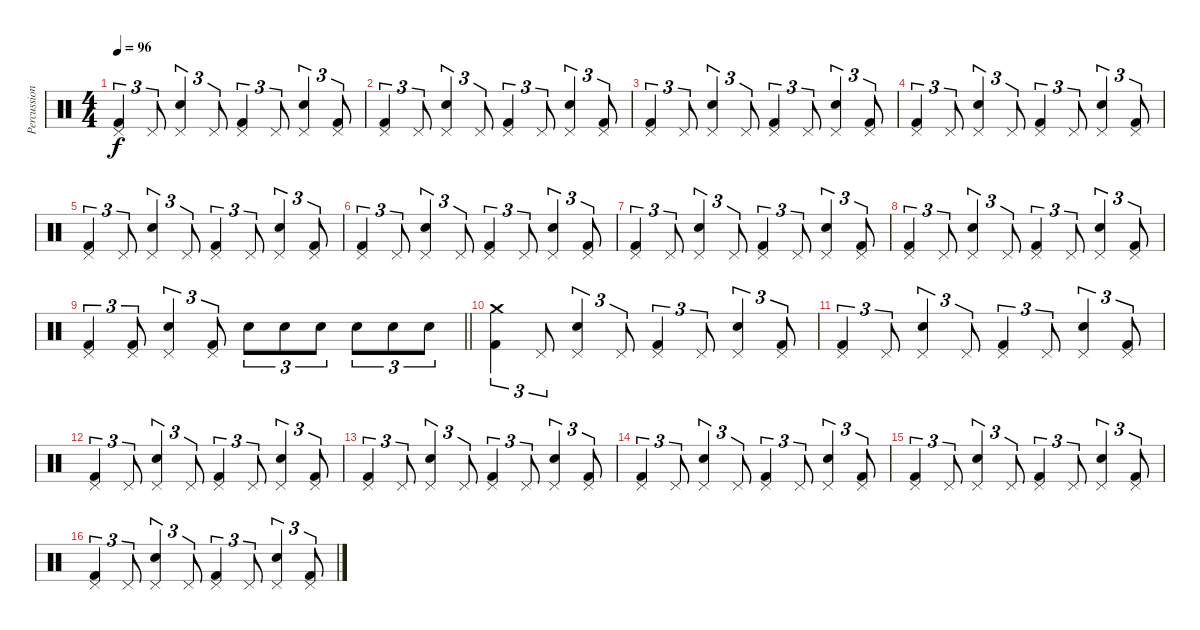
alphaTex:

\track ("Percussioni" "Percussion") {instrument percussion}
\staff {score}
\articulation defaults
\ts (4 4)
\tempo 96
\clef neutral
\ks c
("Kick (hit) 2" "Pedal Hi-Hat (hit)").4{tu (3 2) dy f} "Pedal Hi-Hat (hit)".8{tu (3 2)} ("Electric Snare (hit)" "Pedal Hi-Hat (hit)").4{tu (3 2)} "Pedal Hi-Hat (hit)".8{tu (3 2)} ("Kick (hit) 2" "Pedal Hi-Hat (hit)").4{tu (3 2)} "Pedal Hi-Hat (hit)".8{tu (3 2)} ("Electric Snare (hit)" "Pedal Hi-Hat (hit)").4{tu (3 2)} ("Kick (hit) 2" "Pedal Hi-Hat (hit)").8{tu (3 2)} |
("Kick (hit) 2" "Pedal Hi-Hat (hit)").4{tu (3 2)} "Pedal Hi-Hat (hit)".8{tu (3 2)} ("Electric Snare (hit)" "Pedal Hi-Hat (hit)").4{tu (3 2)} "Pedal Hi-Hat (hit)".8{tu (3 2)} ("Kick (hit) 2" "Pedal Hi-Hat (hit)").4{tu (3 2)} "Pedal Hi-Hat (hit)".8{tu (3 2)} ("Electric Snare (hit)" "Pedal Hi-Hat (hit)").4{tu (3 2)} ("Kick (hit) 2" "Pedal Hi-Hat (hit)").8{tu (3 2)} |
("Kick (hit) 2" "Pedal Hi-Hat (hit)").4{tu (3 2)} "Pedal Hi-Hat (hit)".8{tu (3 2)} ("Electric Snare (hit)" "Pedal Hi-Hat (hit)").4{tu (3 2)} "Pedal Hi-Hat (hit)".8{tu (3 2)} ("Kick (hit) 2" "Pedal Hi-Hat (hit)").4{tu (3 2)} "Pedal Hi-Hat (hit)".8{tu (3 2)} ("Electric Snare (hit)" "Pedal Hi-Hat (hit)").4{tu (3 2)} ("Kick (hit) 2" "Pedal Hi-Hat (hit)").8{tu (3 2)} |
("Kick (hit) 2" "Pedal Hi-Hat (hit)").4{tu (3 2)} "Pedal Hi-Hat (hit)".8{tu (3 2)} ("Electric Snare (hit)" "Pedal Hi-Hat (hit)").4{tu (3 2)} "Pedal Hi-Hat (hit)".8{tu (3 2)} ("Kick (hit) 2" "Pedal Hi-Hat (hit)").4{tu (3 2)} "Pedal Hi-Hat (hit)".8{tu (3 2)} ("Electric Snare (hit)" "Pedal Hi-Hat (hit)").4{tu (3 2)} ("Kick (hit) 2" "Pedal Hi-Hat (hit)").8{tu (3 2)} |
("Kick (hit) 2" "Pedal Hi-Hat (hit)").4{tu (3 2)} "Pedal Hi-Hat (hit)".8{tu (3 2)} ("Electric Snare (hit)" "Pedal Hi-Hat (hit)").4{tu (3 2)} "Pedal Hi-Hat (hit)".8{tu (3 2)} ("Kick (hit) 2" "Pedal Hi-Hat (hit)").4{tu (3 2)} "Pedal Hi-Hat (hit)".8{tu (3 2)} ("Electric Snare (hit)" "Pedal Hi-Hat (hit)").4{tu (3 2)} ("Kick (hit) 2" "Pedal Hi-Hat (hit)").8{tu (3 2)} |
("Kick (hit) 2" "Pedal Hi-Hat (hit)").4{tu (3 2)} "Pedal Hi-Hat (hit)".8{tu (3 2)} ("Electric Snare (hit)" "Pedal Hi-Hat (hit)").4{tu (3 2)} "Pedal Hi-Hat (hit)".8{tu (3 2)} ("Kick (hit) 2" "Pedal Hi-Hat (hit)").4{tu (3 2)} "Pedal Hi-Hat (hit)".8{tu (3 2)} ("Electric Snare (hit)" "Pedal Hi-Hat (hit)").4{tu (3 2)} ("Kick (hit) 2" "Pedal Hi-Hat (hit)").8{tu (3 2)} |
("Kick (hit) 2" "Pedal Hi-Hat (hit)").4{tu (3 2)} "Pedal Hi-Hat (hit)".8{tu (3 2)} ("Electric Snare (hit)" "Pedal Hi-Hat (hit)").4{tu (3 2)} "Pedal Hi-Hat (hit)".8{tu (3 2)} ("Kick (hit) 2" "Pedal Hi-Hat (hit)").4{tu (3 2)} "Pedal Hi-Hat (hit)".8{tu (3 2)} ("Electric Snare (hit)" "Pedal Hi-Hat (hit)").4{tu (3 2)} ("Kick (hit) 2" "Pedal Hi-Hat (hit)").8{tu (3 2)} |
("Kick (hit) 2" "Pedal Hi-Hat (hit)").4{tu (3 2)} "Pedal Hi-Hat (hit)".8{tu (3 2)} ("Electric Snare (hit)" "Pedal Hi-Hat (hit)").4{tu (3 2)} "Pedal Hi-Hat (hit)".8{tu (3 2)} ("Kick (hit) 2" "Pedal Hi-Hat (hit)").4{tu (3 2)} "Pedal Hi-Hat (hit)".8{tu (3 2)} ("Electric Snare (hit)" "Pedal Hi-Hat (hit)").4{tu (3 2)} ("Kick (hit) 2" "Pedal Hi-Hat (hit)").8{tu (3 2)} |
\barLineRight lightlight
("Kick (hit) 2" "Pedal Hi-Hat (hit)").4{tu (3 2)} ("Kick (hit) 2" "Pedal Hi-Hat (hit)").8{tu (3 2)} ("Electric Snare (hit)" "Pedal Hi-Hat (hit)").4{tu (3 2)} ("Kick (hit) 2" "Pedal Hi-Hat (hit)").8{tu (3 2)} "Electric Snare (hit)".8{tu (3 2)} "Electric Snare (hit)".8{tu (3 2)} "Electric Snare (hit)".8{tu (3 2)} "Electric Snare (hit)".8{tu (3 2)} "Electric Snare (hit)".8{tu (3 2)} "Electric Snare (hit)".8{tu (3 2)} |
("Kick (hit) 2" "Crash medium (hit)").4{tu (3 2)} "Pedal Hi-Hat (hit)".8{tu (3 2)} ("Electric Snare (hit)" "Pedal Hi-Hat (hit)").4{tu (3 2)} "Pedal Hi-Hat (hit)".8{tu (3 2)} ("Kick (hit) 2" "Pedal Hi-Hat (hit)").4{tu (3 2)} "Pedal Hi-Hat (hit)".8{tu (3 2)} ("Electric Snare (hit)" "Pedal Hi-Hat (hit)").4{tu (3 2)} ("Kick (hit) 2" "Pedal Hi-Hat (hit)").8{tu (3 2)} |
("Kick (hit) 2" "Pedal Hi-Hat (hit)").4{tu (3 2)} "Pedal Hi-Hat (hit)".8{tu (3 2)} ("Electric Snare (hit)" "Pedal Hi-Hat (hit)").4{tu (3 2)} "Pedal Hi-Hat (hit)".8{tu (3 2)} ("Kick (hit) 2" "Pedal Hi-Hat (hit)").4{tu (3 2)} "Pedal Hi-Hat (hit)".8{tu (3 2)} ("Electric Snare (hit)" "Pedal Hi-Hat (hit)").4{tu (3 2)} ("Kick (hit) 2" "Pedal Hi-Hat (hit)").8{tu (3 2)} |
("Kick (hit) 2" "Pedal Hi-Hat (hit)").4{tu (3 2)} "Pedal Hi-Hat (hit)".8{tu (3 2)} ("Electric Snare (hit)" "Pedal Hi-Hat (hit)").4{tu (3 2)} "Pedal Hi-Hat (hit)".8{tu (3 2)} ("Kick (hit) 2" "Pedal Hi-Hat (hit)").4{tu (3 2)} "Pedal Hi-Hat (hit)".8{tu (3 2)} ("Electric Snare (hit)" "Pedal Hi-Hat (hit)").4{tu (3 2)} ("Kick (hit) 2" "Pedal Hi-Hat (hit)").8{tu (3 2)} |
("Kick (hit) 2" "Pedal Hi-Hat (hit)").4{tu (3 2)} "Pedal Hi-Hat (hit)".8{tu (3 2)} ("Electric Snare (hit)" "Pedal Hi-Hat (hit)").4{tu (3 2)} "Pedal Hi-Hat (hit)".8{tu (3 2)} ("Kick (hit) 2" "Pedal Hi-Hat (hit)").4{tu (3 2)} "Pedal Hi-Hat (hit)".8{tu (3 2)} ("Electric Snare (hit)" "Pedal Hi-Hat (hit)").4{tu (3 2)} ("Kick (hit) 2" "Pedal Hi-Hat (hit)").8{tu (3 2)} |
("Kick (hit) 2" "Pedal Hi-Hat (hit)").4{tu (3 2)} "Pedal Hi-Hat (hit)".8{tu (3 2)} ("Electric Snare (hit)" "Pedal Hi-Hat (hit)").4{tu (3 2)} "Pedal Hi-Hat (hit)".8{tu (3 2)} ("Kick (hit) 2" "Pedal Hi-Hat (hit)").4{tu (3 2)} "Pedal Hi-Hat (hit)".8{tu (3 2)} ("Electric Snare (hit)" "Pedal Hi-Hat (hit)").4{tu (3 2)} ("Kick (hit) 2" "Pedal Hi-Hat (hit)").8{tu (3 2)} |
("Kick (hit) 2" "Pedal Hi-Hat (hit)").4{tu (3 2)} "Pedal Hi-Hat (hit)".8{tu (3 2)} ("Electric Snare (hit)" "Pedal Hi-Hat (hit)").4{tu (3 2)} "Pedal Hi-Hat (hit)".8{tu (3 2)} ("Kick (hit) 2" "Pedal Hi-Hat (hit)").4{tu (3 2)} "Pedal Hi-Hat (hit)".8{tu (3 2)} ("Electric Snare (hit)" "Pedal Hi-Hat (hit)").4{tu (3 2)} ("Kick (hit) 2" "Pedal Hi-Hat (hit)").8{tu (3 2)} |
("Kick (hit) 2" "Pedal Hi-Hat (hit)").4{tu (3 2)} "Pedal Hi-Hat (hit)".8{tu (3 2)} ("Electric Snare (hit)" "Pedal Hi-Hat (hit)").4{tu (3 2)} "Pedal Hi-Hat (hit)".8{tu (3 2)} ("Kick (hit) 2" "Pedal Hi-Hat (hit)").4{tu (3 2)} "Pedal Hi-Hat (hit)".8{tu (3 2)} ("Electric Snare (hit)" "Pedal Hi-Hat (hit)").4{tu (3 2)} ("Kick (hit) 2" "Pedal Hi-Hat (hit)").8{tu (3 2)}
